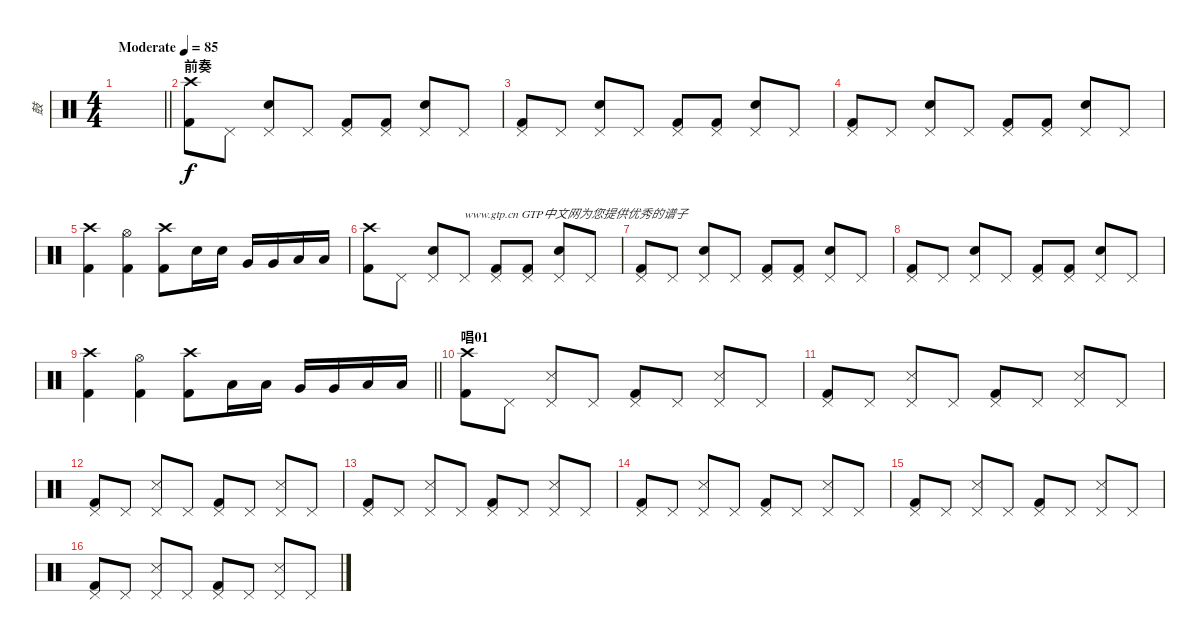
\track ("鼓" "鼓") {instrument percussion}
\staff {score}
\articulation defaults
\ts (4 4)
\tempo (85 "Moderate")
\clef neutral
\barLineRight lightlight
\ks c
|
\section ("" "前奏")
("Crash high (hit)" "Kick (hit) 2").8 "Pedal Hi-Hat (hit)".8 ("Pedal Hi-Hat (hit)" "Electric Snare (hit)").8 "Pedal Hi-Hat (hit)".8 ("Pedal Hi-Hat (hit)" "Kick (hit) 2").8 ("Pedal Hi-Hat (hit)" "Kick (hit) 2").8 ("Pedal Hi-Hat (hit)" "Electric Snare (hit)").8 "Pedal Hi-Hat (hit)".8 |
("Pedal Hi-Hat (hit)" "Kick (hit) 2").8 "Pedal Hi-Hat (hit)".8 ("Pedal Hi-Hat (hit)" "Electric Snare (hit)").8 "Pedal Hi-Hat (hit)".8 ("Pedal Hi-Hat (hit)" "Kick (hit) 2").8 ("Pedal Hi-Hat (hit)" "Kick (hit) 2").8 ("Pedal Hi-Hat (hit)" "Electric Snare (hit)").8 "Pedal Hi-Hat (hit)".8 |
("Pedal Hi-Hat (hit)" "Kick (hit) 2").8 "Pedal Hi-Hat (hit)".8 ("Pedal Hi-Hat (hit)" "Electric Snare (hit)").8 "Pedal Hi-Hat (hit)".8 ("Pedal Hi-Hat (hit)" "Kick (hit) 2").8 ("Pedal Hi-Hat (hit)" "Kick (hit) 2").8 ("Pedal Hi-Hat (hit)" "Electric Snare (hit)").8 "Pedal Hi-Hat (hit)".8 |
("Crash high (hit)" "Kick (hit) 2").4 ("Hi-Hat (open)" "Kick (hit) 2").4 ("Crash high (hit)" "Kick (hit) 2").8 "Electric Snare (hit)".16 "Electric Snare (hit)".16 "Very Low Tom (hit)".16 "Very Low Tom (hit)".16 "Low Floor Tom (hit)".16 "Low Floor Tom (hit)".16 |
("Crash high (hit)" "Kick (hit) 2").8 "Pedal Hi-Hat (hit)".8 ("Pedal Hi-Hat (hit)" "Electric Snare (hit)").8 "Pedal Hi-Hat (hit)".8{txt "www.gtp.cn GTP中文网为您提供优秀的谱子"} ("Pedal Hi-Hat (hit)" "Kick (hit) 2").8 ("Pedal Hi-Hat (hit)" "Kick (hit) 2").8 ("Pedal Hi-Hat (hit)" "Electric Snare (hit)").8 "Pedal Hi-Hat (hit)".8 |
("Pedal Hi-Hat (hit)" "Kick (hit) 2").8 "Pedal Hi-Hat (hit)".8 ("Pedal Hi-Hat (hit)" "Electric Snare (hit)").8 "Pedal Hi-Hat (hit)".8 ("Pedal Hi-Hat (hit)" "Kick (hit) 2").8 ("Pedal Hi-Hat (hit)" "Kick (hit) 2").8 ("Pedal Hi-Hat (hit)" "Electric Snare (hit)").8 "Pedal Hi-Hat (hit)".8 |
("Pedal Hi-Hat (hit)" "Kick (hit) 2").8 "Pedal Hi-Hat (hit)".8 ("Pedal Hi-Hat (hit)" "Electric Snare (hit)").8 "Pedal Hi-Hat (hit)".8 ("Pedal Hi-Hat (hit)" "Kick (hit) 2").8 ("Pedal Hi-Hat (hit)" "Kick (hit) 2").8 ("Pedal Hi-Hat (hit)" "Electric Snare (hit)").8 "Pedal Hi-Hat (hit)".8 |
\barLineRight lightlight
("Crash high (hit)" "Kick (hit) 2").4 ("Hi-Hat (open)" "Kick (hit) 2").4 ("Crash high (hit)" "Kick (hit) 2").8 "Low Tom (hit)".16 "Low Tom (hit)".16 "Very Low Tom (hit)".16 "Very Low Tom (hit)".16 "Low Floor Tom (hit)".16 "Low Floor Tom (hit)".16 |
\section ("" "唱01")
("Crash high (hit)" "Kick (hit) 2").8 "Pedal Hi-Hat (hit)".8 ("Pedal Hi-Hat (hit)" "Snare (side stick) 3").8 "Pedal Hi-Hat (hit)".8 ("Pedal Hi-Hat (hit)" "Kick (hit) 2").8 "Pedal Hi-Hat (hit)".8 ("Pedal Hi-Hat (hit)" "Snare (side stick) 3").8 "Pedal Hi-Hat (hit)".8 |
("Pedal Hi-Hat (hit)" "Kick (hit) 2").8 "Pedal Hi-Hat (hit)".8 ("Pedal Hi-Hat (hit)" "Snare (side stick) 3").8 "Pedal Hi-Hat (hit)".8 ("Pedal Hi-Hat (hit)" "Kick (hit) 2").8 "Pedal Hi-Hat (hit)".8 ("Pedal Hi-Hat (hit)" "Snare (side stick) 3").8 "Pedal Hi-Hat (hit)".8 |
("Pedal Hi-Hat (hit)" "Kick (hit) 2").8 "Pedal Hi-Hat (hit)".8 ("Pedal Hi-Hat (hit)" "Snare (side stick) 3").8 "Pedal Hi-Hat (hit)".8 ("Pedal Hi-Hat (hit)" "Kick (hit) 2").8 "Pedal Hi-Hat (hit)".8 ("Pedal Hi-Hat (hit)" "Snare (side stick) 3").8 "Pedal Hi-Hat (hit)".8 |
("Pedal Hi-Hat (hit)" "Kick (hit) 2").8 "Pedal Hi-Hat (hit)".8 ("Pedal Hi-Hat (hit)" "Snare (side stick) 3").8 "Pedal Hi-Hat (hit)".8 ("Pedal Hi-Hat (hit)" "Kick (hit) 2").8 "Pedal Hi-Hat (hit)".8 ("Pedal Hi-Hat (hit)" "Snare (side stick) 3").8 "Pedal Hi-Hat (hit)".8 |
("Pedal Hi-Hat (hit)" "Kick (hit) 2").8 "Pedal Hi-Hat (hit)".8 ("Pedal Hi-Hat (hit)" "Snare (side stick) 3").8 "Pedal Hi-Hat (hit)".8 ("Pedal Hi-Hat (hit)" "Kick (hit) 2").8 "Pedal Hi-Hat (hit)".8 ("Pedal Hi-Hat (hit)" "Snare (side stick) 3").8 "Pedal Hi-Hat (hit)".8 |
("Pedal Hi-Hat (hit)" "Kick (hit) 2").8 "Pedal Hi-Hat (hit)".8 ("Pedal Hi-Hat (hit)" "Snare (side stick) 3").8 "Pedal Hi-Hat (hit)".8 ("Pedal Hi-Hat (hit)" "Kick (hit) 2").8 "Pedal Hi-Hat (hit)".8 ("Pedal Hi-Hat (hit)" "Snare (side stick) 3").8 "Pedal Hi-Hat (hit)".8 |
("Pedal Hi-Hat (hit)" "Kick (hit) 2").8 "Pedal Hi-Hat (hit)".8 ("Pedal Hi-Hat (hit)" "Snare (side stick) 3").8 "Pedal Hi-Hat (hit)".8 ("Pedal Hi-Hat (hit)" "Kick (hit) 2").8 "Pedal Hi-Hat (hit)".8 ("Pedal Hi-Hat (hit)" "Snare (side stick) 3").8 "Pedal Hi-Hat (hit)".8
